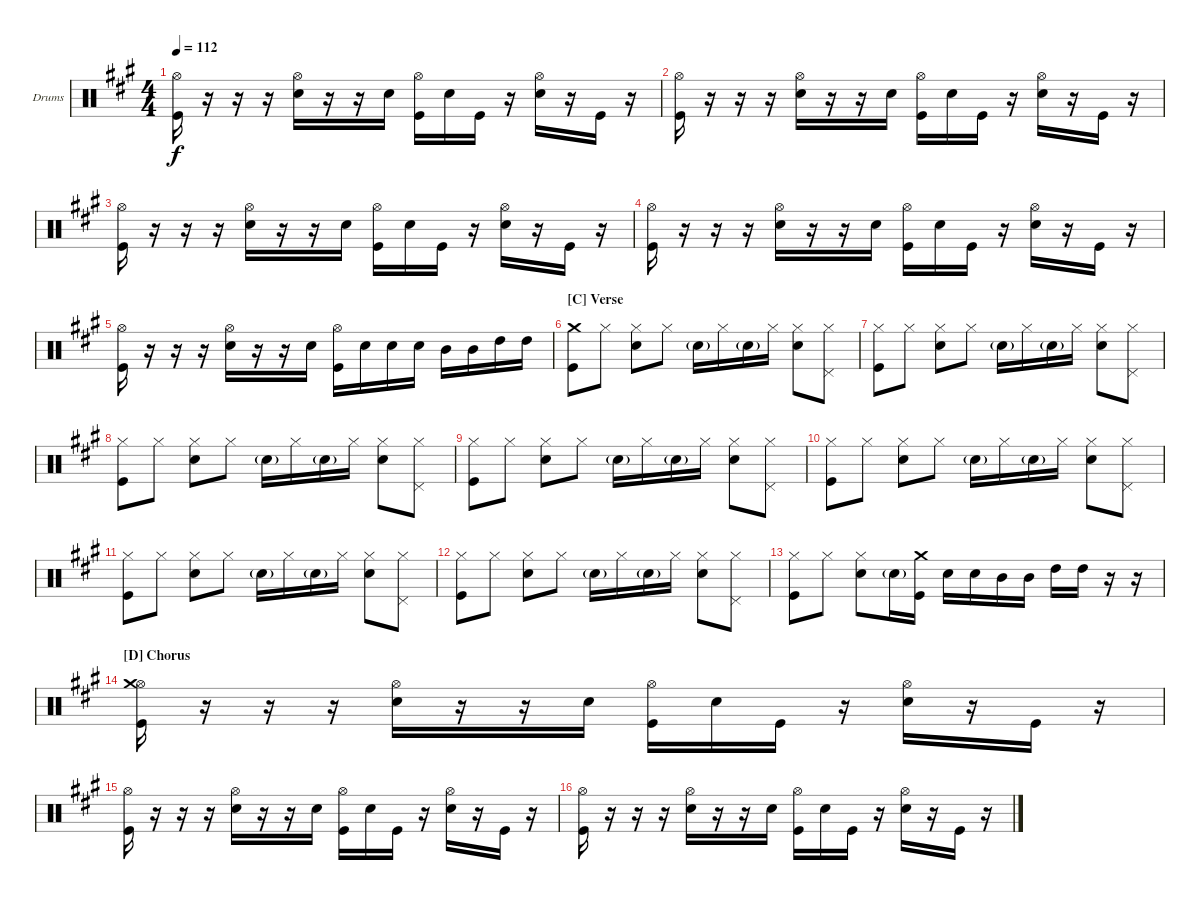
\defaultSystemsLayout 4
\bracketExtendMode groupsimilarinstruments
\firstSystemTrackNameOrientation horizontal
\otherSystemsTrackNameOrientation horizontal
\track ("Drumkit" "Drums") {instrument percussion}
\staff {score}
\articulation defaults
\ts (4 4)
\tempo 112
\clef neutral
\scale
1.05801
\ks a
("Hi-Hat (open)" "Kick (hit)").16{dy f} r.16 r.16 r.16 ("Hi-Hat (open)" "Snare (hit) 2").16 r.16 r.16 "Snare (hit) 2".16 ("Hi-Hat (open)" "Kick (hit)").16 "Snare (hit) 2".16 "Kick (hit)".16 r.16 ("Hi-Hat (open)" "Snare (hit) 2").16 r.16 "Kick (hit)".16 r.16 |
\scale
0.941992 ("Hi-Hat (open)" "Kick (hit)").16 r.16 r.16 r.16 ("Hi-Hat (open)" "Snare (hit) 2").16 r.16 r.16 "Snare (hit) 2".16 ("Hi-Hat (open)" "Kick (hit)").16 "Snare (hit) 2".16 "Kick (hit)".16 r.16 ("Hi-Hat (open)" "Snare (hit) 2").16 r.16 "Kick (hit)".16 r.16 |
\scale
1.05801 ("Hi-Hat (open)" "Kick (hit)").16 r.16 r.16 r.16 ("Hi-Hat (open)" "Snare (hit) 2").16 r.16 r.16 "Snare (hit) 2".16 ("Hi-Hat (open)" "Kick (hit)").16 "Snare (hit) 2".16 "Kick (hit)".16 r.16 ("Hi-Hat (open)" "Snare (hit) 2").16 r.16 "Kick (hit)".16 r.16 |
\scale
0.941992 ("Hi-Hat (open)" "Kick (hit)").16 r.16 r.16 r.16 ("Hi-Hat (open)" "Snare (hit) 2").16 r.16 r.16 "Snare (hit) 2".16 ("Hi-Hat (open)" "Kick (hit)").16 "Snare (hit) 2".16 "Kick (hit)".16 r.16 ("Hi-Hat (open)" "Snare (hit) 2").16 r.16 "Kick (hit)".16 r.16 |
\scale
1.05801 ("Hi-Hat (open)" "Kick (hit)").16 r.16 r.16 r.16 ("Hi-Hat (open)" "Snare (hit) 2").16 r.16 r.16 "Snare (hit) 2".16 ("Hi-Hat (open)" "Kick (hit)").16 "Snare (hit) 2".16 "Snare (hit) 2".16 "Snare (hit) 2".16 "Mid Tom (hit)".16 "Mid Tom (hit)".16 "High Tom (hit)".16 "High Tom (hit)".16 |
\section ("C" "Verse")
\scale
0.941992 ("Crash medium (hit)" "Kick (hit)").8 "Hi-Hat (closed)".8 ("Hi-Hat (closed)" "Snare (hit) 2").8 "Hi-Hat (closed)".8 "Snare (hit) 2"{g}.16 "Hi-Hat (closed)".16 "Snare (hit) 2"{g}.16 "Hi-Hat (closed)".16 ("Hi-Hat (closed)" "Snare (hit) 2").8 ("Hi-Hat (closed)" "Pedal Hi-Hat (hit)").8 |
\scale
1.05801 ("Hi-Hat (closed)" "Kick (hit)").8 "Hi-Hat (closed)".8 ("Hi-Hat (closed)" "Snare (hit) 2").8 "Hi-Hat (closed)".8 "Snare (hit) 2"{g}.16 "Hi-Hat (closed)".16 "Snare (hit) 2"{g}.16 "Hi-Hat (closed)".16 ("Hi-Hat (closed)" "Snare (hit) 2").8 ("Hi-Hat (closed)" "Pedal Hi-Hat (hit)").8 |
\scale
0.941992 ("Hi-Hat (closed)" "Kick (hit)").8 "Hi-Hat (closed)".8 ("Hi-Hat (closed)" "Snare (hit) 2").8 "Hi-Hat (closed)".8 "Snare (hit) 2"{g}.16 "Hi-Hat (closed)".16 "Snare (hit) 2"{g}.16 "Hi-Hat (closed)".16 ("Hi-Hat (closed)" "Snare (hit) 2").8 ("Hi-Hat (closed)" "Pedal Hi-Hat (hit)").8 |
\scale
1.05801 ("Hi-Hat (closed)" "Kick (hit)").8 "Hi-Hat (closed)".8 ("Hi-Hat (closed)" "Snare (hit) 2").8 "Hi-Hat (closed)".8 "Snare (hit) 2"{g}.16 "Hi-Hat (closed)".16 "Snare (hit) 2"{g}.16 "Hi-Hat (closed)".16 ("Hi-Hat (closed)" "Snare (hit) 2").8 ("Hi-Hat (closed)" "Pedal Hi-Hat (hit)").8 |
\scale
0.941992 ("Hi-Hat (closed)" "Kick (hit)").8 "Hi-Hat (closed)".8 ("Hi-Hat (closed)" "Snare (hit) 2").8 "Hi-Hat (closed)".8 "Snare (hit) 2"{g}.16 "Hi-Hat (closed)".16 "Snare (hit) 2"{g}.16 "Hi-Hat (closed)".16 ("Hi-Hat (closed)" "Snare (hit) 2").8 ("Hi-Hat (closed)" "Pedal Hi-Hat (hit)").8 |
\scale
1.05801 ("Hi-Hat (closed)" "Kick (hit)").8 "Hi-Hat (closed)".8 ("Hi-Hat (closed)" "Snare (hit) 2").8 "Hi-Hat (closed)".8 "Snare (hit) 2"{g}.16 "Hi-Hat (closed)".16 "Snare (hit) 2"{g}.16 "Hi-Hat (closed)".16 ("Hi-Hat (closed)" "Snare (hit) 2").8 ("Hi-Hat (closed)" "Pedal Hi-Hat (hit)").8 |
\scale
0.941992 ("Hi-Hat (closed)" "Kick (hit)").8 "Hi-Hat (closed)".8 ("Hi-Hat (closed)" "Snare (hit) 2").8 "Hi-Hat (closed)".8 "Snare (hit) 2"{g}.16 "Hi-Hat (closed)".16 "Snare (hit) 2"{g}.16 "Hi-Hat (closed)".16 ("Hi-Hat (closed)" "Snare (hit) 2").8 ("Hi-Hat (closed)" "Pedal Hi-Hat (hit)").8 |
\scale
1.05801 ("Hi-Hat (closed)" "Kick (hit)").8 "Hi-Hat (closed)".8 ("Hi-Hat (closed)" "Snare (hit) 2").8 "Snare (hit) 2"{g}.16 ("Crash medium (hit)" "Kick (hit)").16 "Snare (hit) 2".16 "Snare (hit) 2".16 "Mid Tom (hit)".16 "Mid Tom (hit)".16 "High Tom (hit)".16 "High Tom (hit)".16 r.16 r.16 |
\section ("D" "Chorus")
\scale
0.941992 ("Hi-Hat (open)" "Kick (hit)" "Crash medium (hit)").16 r.16 r.16 r.16 ("Hi-Hat (open)" "Snare (hit) 2").16 r.16 r.16 "Snare (hit) 2".16 ("Hi-Hat (open)" "Kick (hit)").16 "Snare (hit) 2".16 "Kick (hit)".16 r.16 ("Hi-Hat (open)" "Snare (hit) 2").16 r.16 "Kick (hit)".16 r.16 |
\scale
1.05801 ("Hi-Hat (open)" "Kick (hit)").16 r.16 r.16 r.16 ("Hi-Hat (open)" "Snare (hit) 2").16 r.16 r.16 "Snare (hit) 2".16 ("Hi-Hat (open)" "Kick (hit)").16 "Snare (hit) 2".16 "Kick (hit)".16 r.16 ("Hi-Hat (open)" "Snare (hit) 2").16 r.16 "Kick (hit)".16 r.16 |
\scale
0.941992 ("Hi-Hat (open)" "Kick (hit)").16 r.16 r.16 r.16 ("Hi-Hat (open)" "Snare (hit) 2").16 r.16 r.16 "Snare (hit) 2".16 ("Hi-Hat (open)" "Kick (hit)").16 "Snare (hit) 2".16 "Kick (hit)".16 r.16 ("Hi-Hat (open)" "Snare (hit) 2").16 r.16 "Kick (hit)".16 r.16
